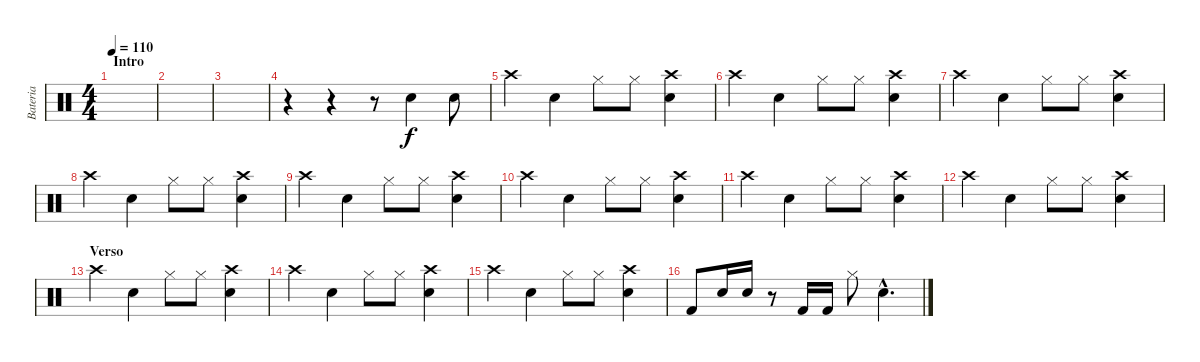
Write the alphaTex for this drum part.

\track ("Bateria" "Bateria") {instrument percussion}
\staff {score}
\articulation defaults
\ts (4 4)
\section ("" "Intro")
\tempo 110
\clef neutral
\ks c
|
|
|
r.4 r.4 r.8 "Electric Snare (hit)".4 "Electric Snare (hit)".8 |
"Crash high (hit)".4 "Electric Snare (hit)".4 "Hi-Hat (closed)".8 "Hi-Hat (closed)".8 ("Crash high (hit)" "Electric Snare (hit)").4 |
"Crash high (hit)".4 "Electric Snare (hit)".4 "Hi-Hat (closed)".8 "Hi-Hat (closed)".8 ("Crash high (hit)" "Electric Snare (hit)").4 |
"Crash high (hit)".4 "Electric Snare (hit)".4 "Hi-Hat (closed)".8 "Hi-Hat (closed)".8 ("Crash high (hit)" "Electric Snare (hit)").4 |
"Crash high (hit)".4 "Electric Snare (hit)".4 "Hi-Hat (closed)".8 "Hi-Hat (closed)".8 ("Crash high (hit)" "Electric Snare (hit)").4 |
"Crash high (hit)".4 "Electric Snare (hit)".4 "Hi-Hat (closed)".8 "Hi-Hat (closed)".8 ("Crash high (hit)" "Electric Snare (hit)").4 |
"Crash high (hit)".4 "Electric Snare (hit)".4 "Hi-Hat (closed)".8 "Hi-Hat (closed)".8 ("Crash high (hit)" "Electric Snare (hit)").4 |
"Crash high (hit)".4 "Electric Snare (hit)".4 "Hi-Hat (closed)".8 "Hi-Hat (closed)".8 ("Crash high (hit)" "Electric Snare (hit)").4 |
"Crash high (hit)".4 "Electric Snare (hit)".4 "Hi-Hat (closed)".8 "Hi-Hat (closed)".8 ("Crash high (hit)" "Electric Snare (hit)").4 |
\section ("" "Verso")
"Crash high (hit)".4 "Electric Snare (hit)".4 "Hi-Hat (closed)".8 "Hi-Hat (closed)".8 ("Crash high (hit)" "Electric Snare (hit)").4 |
"Crash high (hit)".4 "Electric Snare (hit)".4 "Hi-Hat (closed)".8 "Hi-Hat (closed)".8 ("Crash high (hit)" "Electric Snare (hit)").4 |
"Crash high (hit)".4 "Electric Snare (hit)".4 "Hi-Hat (closed)".8 "Hi-Hat (closed)".8 ("Crash high (hit)" "Electric Snare (hit)").4 |
"Kick (hit) 2".8 "Electric Snare (hit)".16 "Electric Snare (hit)".16 r.8 "Kick (hit) 2".16 "Kick (hit) 2".16 "Hi-Hat (closed)".8 "Electric Snare (hit)"{hac}.4{d}
